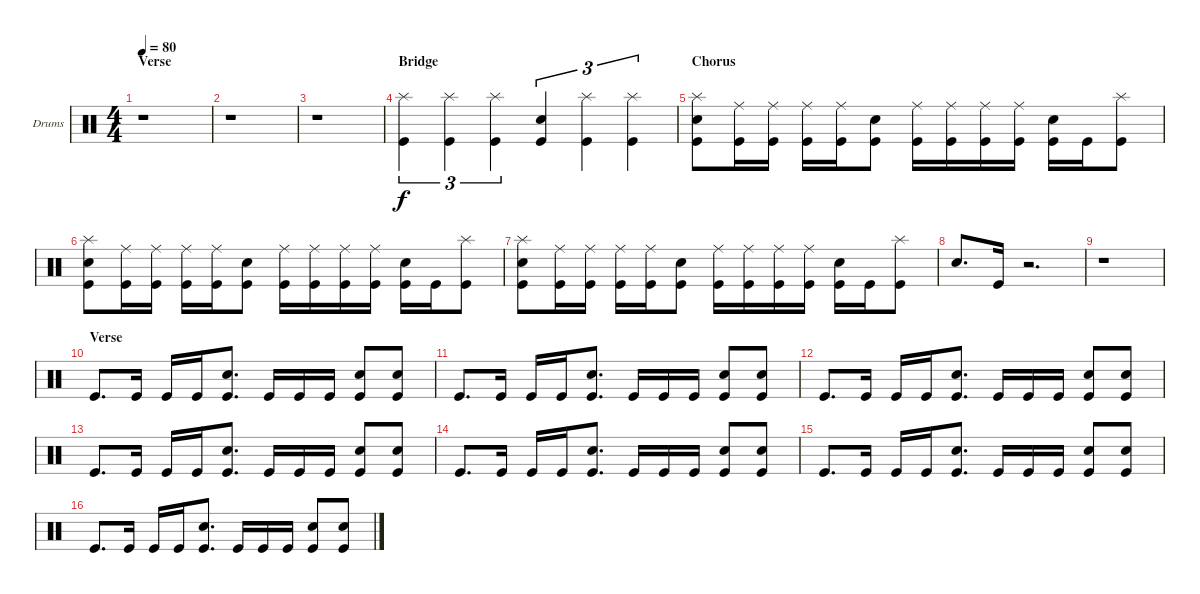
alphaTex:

\defaultSystemsLayout 4
\bracketExtendMode groupsimilarinstruments
\firstSystemTrackNameOrientation horizontal
\otherSystemsTrackNameOrientation horizontal
\track ("Jimmy DeGrasso" "Drums") {instrument percussion}
\staff {score}
\articulation defaults
\ts (4 4)
\section ("" "Verse")
\tempo 80
\clef neutral
\scale
0.333333
\ks c
r.1{dy f} |
\scale
0.333333 r.1 |
\scale
0.333333 r.1 |
\section ("" "Bridge ")
\scale
0.333333 ("Splash (hit)" "Kick (hit)").4{tu (3 2)} ("Kick (hit)" "Splash (hit)").4{tu (3 2)} ("Splash (hit)" "Kick (hit)").4{tu (3 2)} ("Kick (hit)" "Snare (hit) 2").4{tu (3 2)} ("Splash (hit)" "Kick (hit)").4{tu (3 2)} ("Splash (hit)" "Kick (hit)").4{tu (3 2)} |
\section ("" "Chorus")
\scale
0.333333 ("Snare (hit) 2" "Kick (hit)" "Splash (hit)").8 ("Kick (hit)" "Ride (middle)").16 ("Kick (hit)" "Ride (middle)").16 ("Kick (hit)" "Ride (middle)").16 ("Kick (hit)" "Ride (middle)").16 ("Kick (hit)" "Snare (hit) 2").8 ("Kick (hit)" "Ride (middle)").16 ("Kick (hit)" "Ride (middle)").16 ("Kick (hit)" "Ride (middle)").16 ("Kick (hit)" "Ride (middle)").16 ("Kick (hit)" "Snare (hit) 2").16 "Kick (hit)".16 ("Kick (hit)" "Splash (hit)").8 |
\scale
0.333333 ("Snare (hit) 2" "Kick (hit)" "Splash (hit)").8 ("Kick (hit)" "Ride (middle)").16 ("Kick (hit)" "Ride (middle)").16 ("Kick (hit)" "Ride (middle)").16 ("Kick (hit)" "Ride (middle)").16 ("Kick (hit)" "Snare (hit) 2").8 ("Kick (hit)" "Ride (middle)").16 ("Kick (hit)" "Ride (middle)").16 ("Kick (hit)" "Ride (middle)").16 ("Kick (hit)" "Ride (middle)").16 ("Kick (hit)" "Snare (hit) 2").16 "Kick (hit)".16 ("Kick (hit)" "Splash (hit)").8 |
\scale
0.333333 ("Snare (hit) 2" "Kick (hit)" "Splash (hit)").8 ("Kick (hit)" "Ride (middle)").16 ("Kick (hit)" "Ride (middle)").16 ("Kick (hit)" "Ride (middle)").16 ("Kick (hit)" "Ride (middle)").16 ("Kick (hit)" "Snare (hit) 2").8 ("Kick (hit)" "Ride (middle)").16 ("Kick (hit)" "Ride (middle)").16 ("Kick (hit)" "Ride (middle)").16 ("Kick (hit)" "Ride (middle)").16 ("Kick (hit)" "Snare (hit) 2").16 "Kick (hit)".16 ("Kick (hit)" "Splash (hit)").8 |
\scale
0.333333 "Snare (hit) 2".8{d} "Kick (hit)".16 r.2{d} |
\scale
0.333333 r.1 |
\section ("" "Verse")
\scale
0.333333 "Kick (hit)".8{d} "Kick (hit)".16 "Kick (hit)".16 "Kick (hit)".16 ("Kick (hit)" "Snare (hit) 2").8{d} "Kick (hit)".16 "Kick (hit)".16 "Kick (hit)".16 ("Kick (hit)" "Snare (hit) 2").8 ("Snare (hit) 2" "Kick (hit)").8 |
\scale
0.333333 "Kick (hit)".8{d} "Kick (hit)".16 "Kick (hit)".16 "Kick (hit)".16 ("Kick (hit)" "Snare (hit) 2").8{d} "Kick (hit)".16 "Kick (hit)".16 "Kick (hit)".16 ("Kick (hit)" "Snare (hit) 2").8 ("Snare (hit) 2" "Kick (hit)").8 |
\scale
0.333333 "Kick (hit)".8{d} "Kick (hit)".16 "Kick (hit)".16 "Kick (hit)".16 ("Kick (hit)" "Snare (hit) 2").8{d} "Kick (hit)".16 "Kick (hit)".16 "Kick (hit)".16 ("Kick (hit)" "Snare (hit) 2").8 ("Snare (hit) 2" "Kick (hit)").8 |
\scale
0.333333 "Kick (hit)".8{d} "Kick (hit)".16 "Kick (hit)".16 "Kick (hit)".16 ("Kick (hit)" "Snare (hit) 2").8{d} "Kick (hit)".16 "Kick (hit)".16 "Kick (hit)".16 ("Kick (hit)" "Snare (hit) 2").8 ("Snare (hit) 2" "Kick (hit)").8 |
\scale
0.333333 "Kick (hit)".8{d} "Kick (hit)".16 "Kick (hit)".16 "Kick (hit)".16 ("Kick (hit)" "Snare (hit) 2").8{d} "Kick (hit)".16 "Kick (hit)".16 "Kick (hit)".16 ("Kick (hit)" "Snare (hit) 2").8 ("Snare (hit) 2" "Kick (hit)").8 |
\scale
0.333333 "Kick (hit)".8{d} "Kick (hit)".16 "Kick (hit)".16 "Kick (hit)".16 ("Kick (hit)" "Snare (hit) 2").8{d} "Kick (hit)".16 "Kick (hit)".16 "Kick (hit)".16 ("Kick (hit)" "Snare (hit) 2").8 ("Snare (hit) 2" "Kick (hit)").8 |
\scale
0.333333 "Kick (hit)".8{d} "Kick (hit)".16 "Kick (hit)".16 "Kick (hit)".16 ("Kick (hit)" "Snare (hit) 2").8{d} "Kick (hit)".16 "Kick (hit)".16 "Kick (hit)".16 ("Kick (hit)" "Snare (hit) 2").8 ("Snare (hit) 2" "Kick (hit)").8
